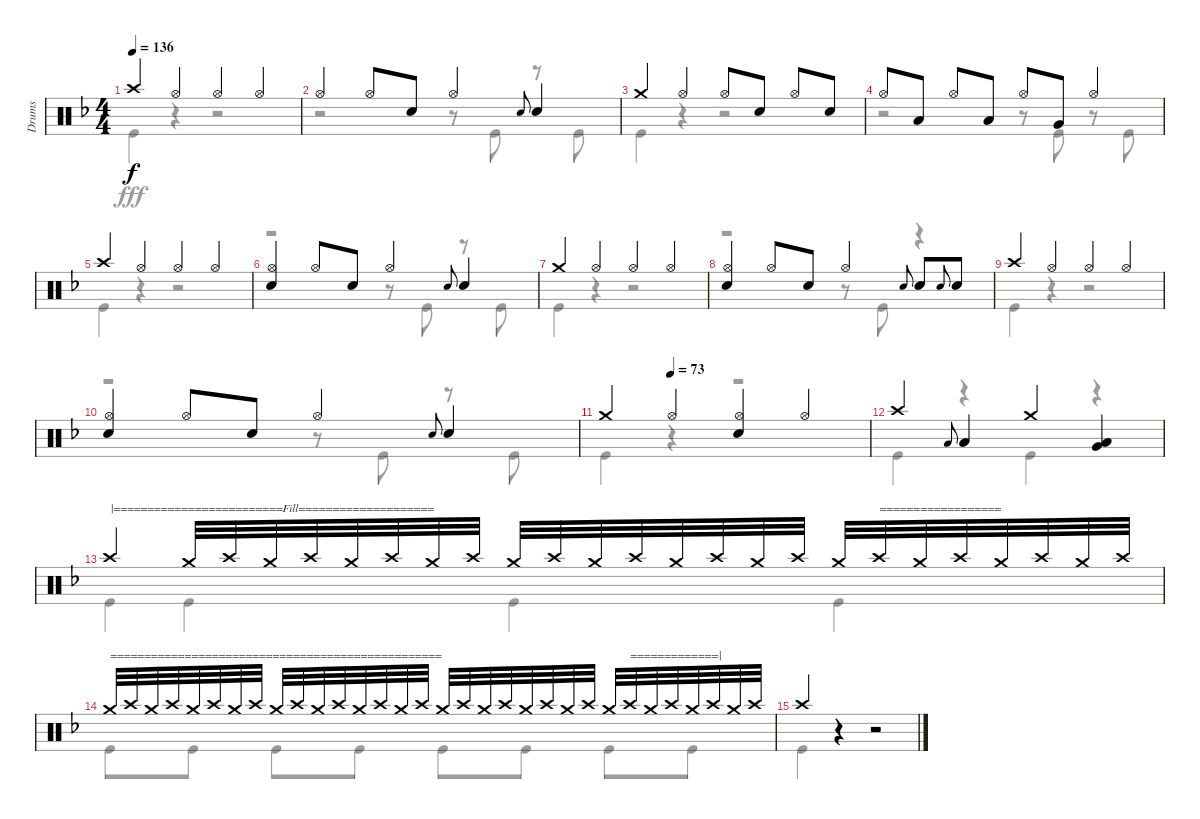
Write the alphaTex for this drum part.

\track ("Drums" "Drums") {instrument percussion}
\staff {score}
\articulation defaults
\voice
\ts (4 4)
\tempo 136
\clef neutral
\ks f "Crash high (hit)".4{dy f} "Hi-Hat (open)".4 "Hi-Hat (open)".4 "Hi-Hat (open)".4
|
"Hi-Hat (open)".4 "Hi-Hat (open)".8 "Snare (hit) 2".8 "Hi-Hat (open)".4 "Snare (hit) 2".8{gr onbeat} "Snare (hit) 2".4 |
"Crash medium (hit)".4 "Hi-Hat (open)".4 "Hi-Hat (open)".8 "Snare (hit) 2".8 "Hi-Hat (open)".8 "Snare (hit) 2".8 |
"Hi-Hat (open)".8 "Low Tom (hit)".8 "Hi-Hat (open)".8 "Low Tom (hit)".8 "Hi-Hat (open)".8 "Very Low Tom (hit)".8 "Hi-Hat (open)".4 |
"Crash high (hit)".4 "Hi-Hat (open)".4 "Hi-Hat (open)".4 "Hi-Hat (open)".4 |
("Hi-Hat (open)" "Snare (hit) 2").4 "Hi-Hat (open)".8 "Snare (hit) 2".8 "Hi-Hat (open)".4 "Snare (hit) 2".8{gr onbeat} "Snare (hit) 2".4 |
"Crash medium (hit)".4 "Hi-Hat (open)".4 "Hi-Hat (open)".4 "Hi-Hat (open)".4 |
("Hi-Hat (open)" "Snare (hit) 2").4 "Hi-Hat (open)".8 "Snare (hit) 2".8 "Hi-Hat (open)".4 "Snare (hit) 2".8{gr onbeat} "Snare (hit) 2".8 "Snare (hit) 2".8{gr onbeat} "Snare (hit) 2".8 |
"Crash high (hit)".4 "Hi-Hat (open)".4 "Hi-Hat (open)".4 "Hi-Hat (open)".4 |
("Hi-Hat (open)" "Snare (hit) 2").4 "Hi-Hat (open)".8 "Snare (hit) 2".8 "Hi-Hat (open)".4 "Snare (hit) 2".8{gr onbeat} "Snare (hit) 2".4 |
\tempo (73 0.25)
"Crash medium (hit)".4 "Hi-Hat (open)".4 ("Hi-Hat (open)" "Snare (hit) 2").4 "Hi-Hat (open)".4 |
"Crash high (hit)".4 "Low Tom (hit)".8{gr onbeat} "Low Tom (hit)".4 "Crash medium (hit)".4 ("Low Tom (hit)" "Very Low Tom (hit)").4 |
"Crash high (hit)".4{txt "|=========================Fill===================="} "Crash medium (hit)".32 "Crash high (hit)".32 "Crash medium (hit)".32 "Crash high (hit)".32 "Crash medium (hit)".32 "Crash high (hit)".32 "Crash medium (hit)".32 "Crash high (hit)".32 "Crash medium (hit)".32 "Crash high (hit)".32 "Crash medium (hit)".32 "Crash high (hit)".32 "Crash medium (hit)".32 "Crash high (hit)".32 "Crash medium (hit)".32 "Crash high (hit)".32 "Crash medium (hit)".32 "Crash high (hit)".32{txt "=================="} "Crash medium (hit)".32 "Crash high (hit)".32 "Crash medium (hit)".32 "Crash high (hit)".32 "Crash medium (hit)".32 "Crash high (hit)".32 |
"Crash medium (hit)".32{txt "================================================="} "Crash high (hit)".32 "Crash medium (hit)".32 "Crash high (hit)".32 "Crash medium (hit)".32 "Crash high (hit)".32 "Crash medium (hit)".32 "Crash high (hit)".32 "Crash medium (hit)".32 "Crash high (hit)".32 "Crash medium (hit)".32 "Crash high (hit)".32 "Crash medium (hit)".32 "Crash high (hit)".32 "Crash medium (hit)".32 "Crash high (hit)".32 "Crash medium (hit)".32 "Crash high (hit)".32 "Crash medium (hit)".32 "Crash high (hit)".32 "Crash medium (hit)".32 "Crash high (hit)".32 "Crash medium (hit)".32 "Crash high (hit)".32 "Crash medium (hit)".32 "Crash high (hit)".32{txt "=============|"} "Crash medium (hit)".32 "Crash high (hit)".32 "Crash medium (hit)".32 "Crash high (hit)".32 "Crash medium (hit)".32 "Crash high (hit)".32 |
"Crash high (hit)".4 r.4 r.2
\voice
\clef neutral
\ottava regular
\simile none
\ks f "Kick (hit)".4{dy fff}
r.4 r.2 |
r.2 r.8 "Kick (hit)".8 r.8 "Kick (hit)".8 |
"Kick (hit)".4 r.4 r.2 |
r.2 r.8 "Kick (hit)".8 r.8 "Kick (hit)".8 |
"Kick (hit)".4 r.4 r.2 |
r.2 r.8 "Kick (hit)".8 r.8 "Kick (hit)".8 |
"Kick (hit)".4 r.4 r.2 |
r.2 r.8 "Kick (hit)".8 r.4 |
"Kick (hit)".4 r.4 r.2 |
r.2 r.8 "Kick (hit)".8 r.8 "Kick (hit)".8 |
"Kick (hit)".4 r.4 r.2 |
"Kick (hit)".4 r.4 "Kick (hit)".4 r.4 |
"Kick (hit)".4 "Kick (hit)".4 "Kick (hit)".4 "Kick (hit)".4 |
"Kick (hit)".8 "Kick (hit)".8 "Kick (hit)".8 "Kick (hit)".8 "Kick (hit)".8 "Kick (hit)".8 "Kick (hit)".8 "Kick (hit)".8 |
"Kick (hit)".4 r.4 r.2
